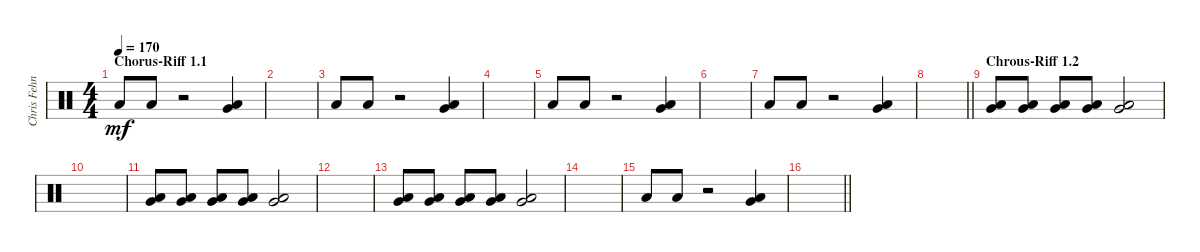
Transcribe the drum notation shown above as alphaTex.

\track ("Chris Fehn" "Chris Fehn") {instrument percussion}
\staff {score}
\articulation defaults
\ts (4 4)
\section ("" "Chorus-Riff 1.1")
\tempo 170
\clef neutral
\ks c "Low Floor Tom (hit)".8{dy mf} "Low Floor Tom (hit)".8
r.2 ("Very Low Tom (hit)" "Low Floor Tom (hit)").4 |
|
"Low Floor Tom (hit)".8 "Low Floor Tom (hit)".8 r.2 ("Very Low Tom (hit)" "Low Floor Tom (hit)").4 |
|
"Low Floor Tom (hit)".8 "Low Floor Tom (hit)".8 r.2 ("Very Low Tom (hit)" "Low Floor Tom (hit)").4 |
|
"Low Floor Tom (hit)".8 "Low Floor Tom (hit)".8 r.2 ("Very Low Tom (hit)" "Low Floor Tom (hit)").4 |
\barLineRight lightlight
|
\section ("" "Chrous-Riff 1.2")
("Very Low Tom (hit)" "Low Floor Tom (hit)").8 ("Very Low Tom (hit)" "Low Floor Tom (hit)").8 ("Very Low Tom (hit)" "Low Floor Tom (hit)").8 ("Very Low Tom (hit)" "Low Floor Tom (hit)").8 ("Very Low Tom (hit)" "Low Floor Tom (hit)").2 |
|
("Very Low Tom (hit)" "Low Floor Tom (hit)").8 ("Very Low Tom (hit)" "Low Floor Tom (hit)").8 ("Very Low Tom (hit)" "Low Floor Tom (hit)").8 ("Very Low Tom (hit)" "Low Floor Tom (hit)").8 ("Very Low Tom (hit)" "Low Floor Tom (hit)").2 |
|
("Very Low Tom (hit)" "Low Floor Tom (hit)").8 ("Very Low Tom (hit)" "Low Floor Tom (hit)").8 ("Very Low Tom (hit)" "Low Floor Tom (hit)").8 ("Very Low Tom (hit)" "Low Floor Tom (hit)").8 ("Very Low Tom (hit)" "Low Floor Tom (hit)").2 |
|
"Low Floor Tom (hit)".8 "Low Floor Tom (hit)".8 r.2 ("Very Low Tom (hit)" "Low Floor Tom (hit)").4 |
\barLineRight lightlight
